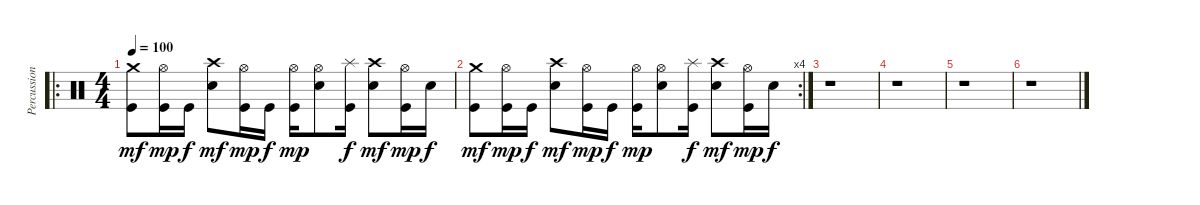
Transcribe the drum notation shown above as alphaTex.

\track ("Percussions" "Percussion") {instrument percussion}
\staff {score}
\articulation defaults
\ro
\ts (4 4)
\tempo 100
\clef neutral
\ks c
("Crash medium (hit)" "Kick (hit)").8{dy mf} ("Hi-Hat (open)" "Kick (hit)").16{dy mp} "Kick (hit)".16{dy f} ("Crash high (hit)" "Electric Snare (hit)").8{dy mf} ("Hi-Hat (open)" "Kick (hit)").16{dy mp} "Kick (hit)".16{dy f} ("Hi-Hat (open)" "Kick (hit)").16{dy mp} ("Hi-Hat (open)" "Electric Snare (hit)").8 ("Splash (hit)" "Kick (hit)").16{dy f} ("Crash high (hit)" "Electric Snare (hit)").8{dy mf} ("Hi-Hat (open)" "Kick (hit)").16{dy mp} "Electric Snare (hit)".16{dy f} |
\rc 4
("Crash medium (hit)" "Kick (hit)").8{dy mf} ("Hi-Hat (open)" "Kick (hit)").16{dy mp} "Kick (hit)".16{dy f} ("Crash high (hit)" "Electric Snare (hit)").8{dy mf} ("Hi-Hat (open)" "Kick (hit)").16{dy mp} "Kick (hit)".16{dy f} ("Hi-Hat (open)" "Kick (hit)").16{dy mp} ("Hi-Hat (open)" "Electric Snare (hit)").8 ("Splash (hit)" "Kick (hit)").16{dy f} ("Crash high (hit)" "Electric Snare (hit)").8{dy mf} ("Hi-Hat (open)" "Kick (hit)").16{dy mp} "Electric Snare (hit)".16{dy f} |
r.1 |
r.1 |
r.1 |
r.1
